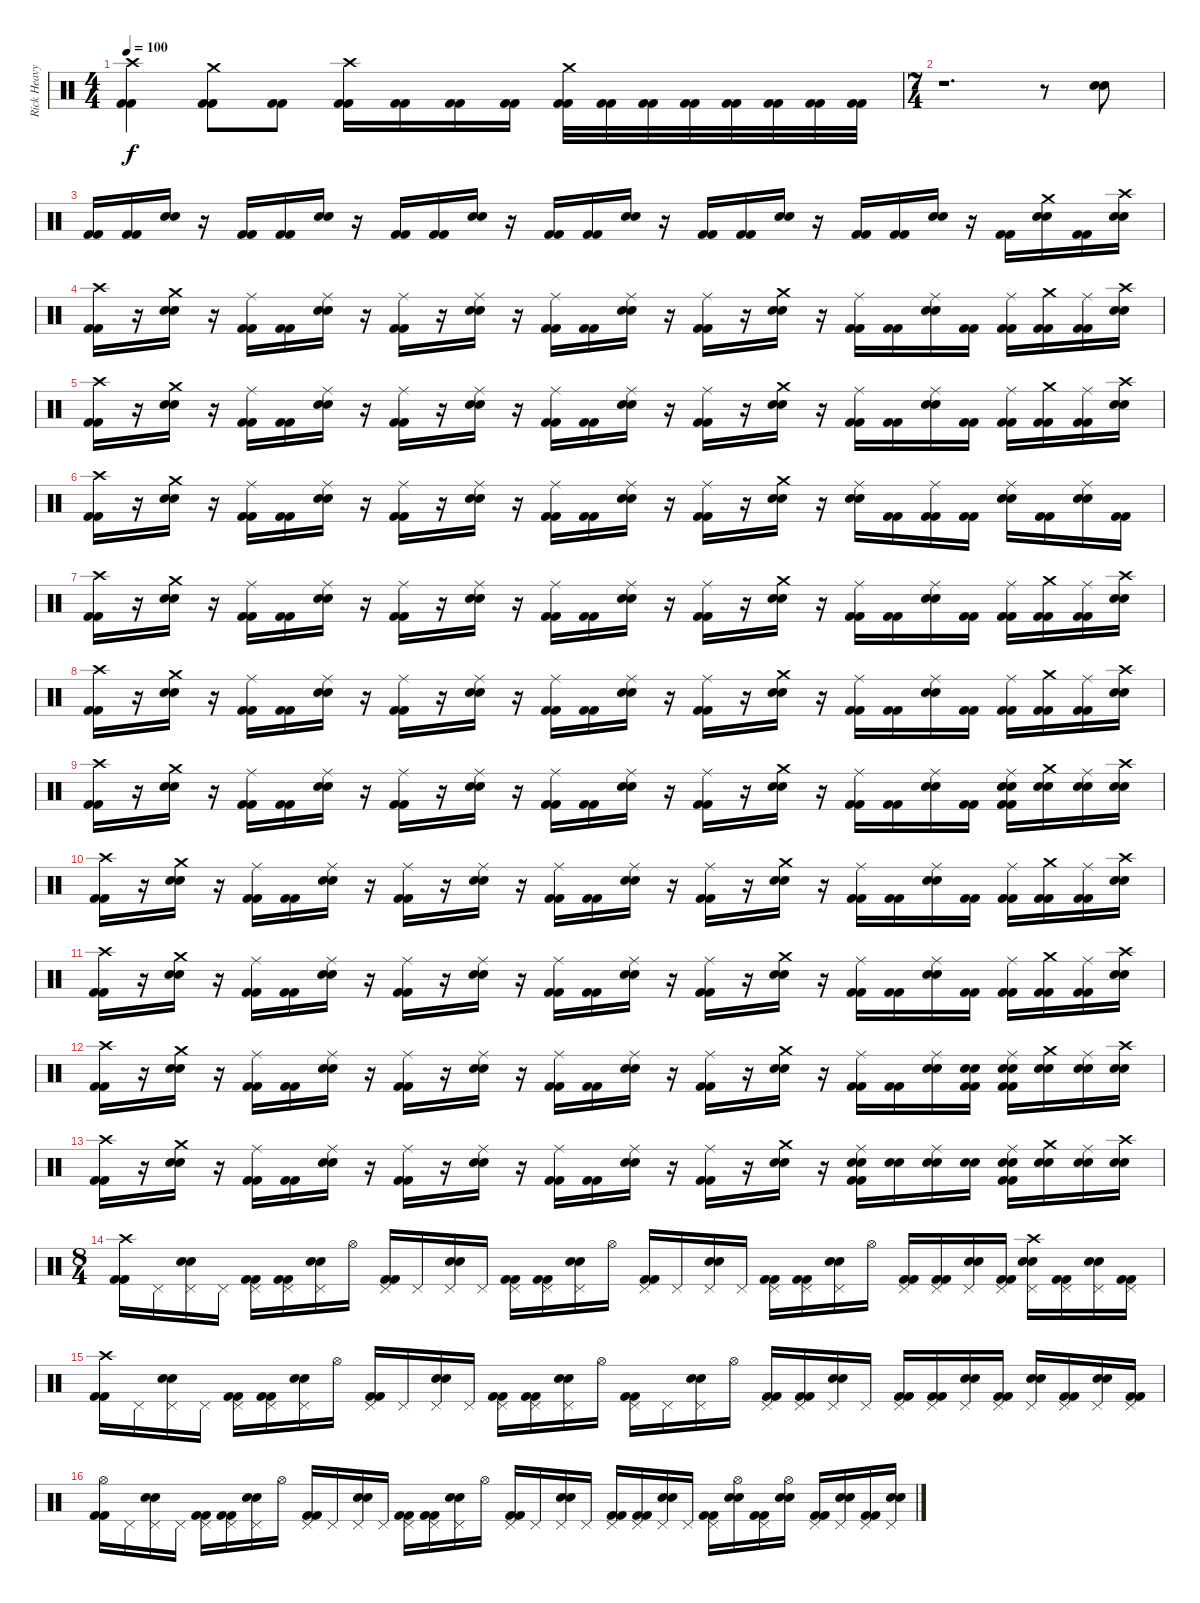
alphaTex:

\track ("Rick Heavy" "Rick Heavy") {instrument percussion}
\staff {score}
\articulation defaults
\ts (4 4)
\tempo 100
\clef neutral
\ks c
("Crash high (hit)" "Kick (hit) 2" "Kick (hit) 2").4{dy f} ("Crash medium (hit)" "Kick (hit) 2" "Kick (hit) 2").8 ("Kick (hit) 2" "Kick (hit) 2").8 ("Crash high (hit)" "Kick (hit) 2" "Kick (hit) 2").16 ("Kick (hit) 2" "Kick (hit) 2").16 ("Kick (hit) 2" "Kick (hit) 2").16 ("Kick (hit) 2" "Kick (hit) 2").16 ("Crash medium (hit)" "Kick (hit) 2" "Kick (hit) 2").32 ("Kick (hit) 2" "Kick (hit) 2").32 ("Kick (hit) 2" "Kick (hit) 2").32 ("Kick (hit) 2" "Kick (hit) 2").32 ("Kick (hit) 2" "Kick (hit) 2").32 ("Kick (hit) 2" "Kick (hit) 2").32 ("Kick (hit) 2" "Kick (hit) 2").32 ("Kick (hit) 2" "Kick (hit) 2").32 |
\ts (7 4)
r.1{d} r.8 ("Electric Snare (hit)" "Snare (hit) 2").8 |
("Kick (hit) 2" "Kick (hit) 2").16 ("Kick (hit) 2" "Kick (hit) 2").16 ("Electric Snare (hit)" "Snare (hit) 2").16 r.16 ("Kick (hit) 2" "Kick (hit) 2").16 ("Kick (hit) 2" "Kick (hit) 2").16 ("Electric Snare (hit)" "Snare (hit) 2").16 r.16 ("Kick (hit) 2" "Kick (hit) 2").16 ("Kick (hit) 2" "Kick (hit) 2").16 ("Electric Snare (hit)" "Snare (hit) 2").16 r.16 ("Kick (hit) 2" "Kick (hit) 2").16 ("Kick (hit) 2" "Kick (hit) 2").16 ("Electric Snare (hit)" "Snare (hit) 2").16 r.16 ("Kick (hit) 2" "Kick (hit) 2").16 ("Kick (hit) 2" "Kick (hit) 2").16 ("Electric Snare (hit)" "Snare (hit) 2").16 r.16 ("Kick (hit) 2" "Kick (hit) 2").16 ("Kick (hit) 2" "Kick (hit) 2").16 ("Electric Snare (hit)" "Snare (hit) 2").16 r.16 ("Kick (hit) 2" "Kick (hit) 2").16 ("Crash medium (hit)" "Electric Snare (hit)" "Snare (hit) 2").16 ("Kick (hit) 2" "Kick (hit) 2").16 ("Crash high (hit)" "Electric Snare (hit)" "Snare (hit) 2").16 |
("Crash high (hit)" "Kick (hit) 2" "Kick (hit) 2").16 r.16 ("Crash medium (hit)" "Electric Snare (hit)" "Snare (hit) 2").16 r.16 ("Ride (middle)" "Kick (hit) 2" "Kick (hit) 2").16 ("Kick (hit) 2" "Kick (hit) 2").16 ("Ride (middle)" "Electric Snare (hit)" "Snare (hit) 2").16 r.16 ("Ride (middle)" "Kick (hit) 2" "Kick (hit) 2").16 r.16 ("Ride (middle)" "Electric Snare (hit)" "Snare (hit) 2").16 r.16 ("Ride (middle)" "Kick (hit) 2" "Kick (hit) 2").16 ("Kick (hit) 2" "Kick (hit) 2").16 ("Ride (middle)" "Electric Snare (hit)" "Snare (hit) 2").16 r.16 ("Ride (middle)" "Kick (hit) 2" "Kick (hit) 2").16 r.16 ("Crash medium (hit)" "Electric Snare (hit)" "Snare (hit) 2").16 r.16 ("Ride (middle)" "Kick (hit) 2" "Kick (hit) 2").16 ("Kick (hit) 2" "Kick (hit) 2").16 ("Ride (middle)" "Electric Snare (hit)" "Snare (hit) 2").16 ("Kick (hit) 2" "Kick (hit) 2").16 ("Ride (middle)" "Kick (hit) 2" "Kick (hit) 2").16 ("Crash medium (hit)" "Kick (hit) 2" "Kick (hit) 2").16 ("Ride (middle)" "Kick (hit) 2" "Kick (hit) 2").16 ("Crash high (hit)" "Electric Snare (hit)" "Snare (hit) 2").16 |
("Crash high (hit)" "Kick (hit) 2" "Kick (hit) 2").16 r.16 ("Crash medium (hit)" "Electric Snare (hit)" "Snare (hit) 2").16 r.16 ("Ride (middle)" "Kick (hit) 2" "Kick (hit) 2").16 ("Kick (hit) 2" "Kick (hit) 2").16 ("Ride (middle)" "Electric Snare (hit)" "Snare (hit) 2").16 r.16 ("Ride (middle)" "Kick (hit) 2" "Kick (hit) 2").16 r.16 ("Ride (middle)" "Electric Snare (hit)" "Snare (hit) 2").16 r.16 ("Ride (middle)" "Kick (hit) 2" "Kick (hit) 2").16 ("Kick (hit) 2" "Kick (hit) 2").16 ("Ride (middle)" "Electric Snare (hit)" "Snare (hit) 2").16 r.16 ("Ride (middle)" "Kick (hit) 2" "Kick (hit) 2").16 r.16 ("Crash medium (hit)" "Electric Snare (hit)" "Snare (hit) 2").16 r.16 ("Ride (middle)" "Kick (hit) 2" "Kick (hit) 2").16 ("Kick (hit) 2" "Kick (hit) 2").16 ("Ride (middle)" "Electric Snare (hit)" "Snare (hit) 2").16 ("Kick (hit) 2" "Kick (hit) 2").16 ("Ride (middle)" "Kick (hit) 2" "Kick (hit) 2").16 ("Crash medium (hit)" "Kick (hit) 2" "Kick (hit) 2").16 ("Ride (middle)" "Kick (hit) 2" "Kick (hit) 2").16 ("Crash high (hit)" "Electric Snare (hit)" "Snare (hit) 2").16 |
("Crash high (hit)" "Kick (hit) 2" "Kick (hit) 2").16 r.16 ("Crash medium (hit)" "Electric Snare (hit)" "Snare (hit) 2").16 r.16 ("Ride (middle)" "Kick (hit) 2" "Kick (hit) 2").16 ("Kick (hit) 2" "Kick (hit) 2").16 ("Ride (middle)" "Electric Snare (hit)" "Snare (hit) 2").16 r.16 ("Ride (middle)" "Kick (hit) 2" "Kick (hit) 2").16 r.16 ("Ride (middle)" "Electric Snare (hit)" "Snare (hit) 2").16 r.16 ("Ride (middle)" "Kick (hit) 2" "Kick (hit) 2").16 ("Kick (hit) 2" "Kick (hit) 2").16 ("Ride (middle)" "Electric Snare (hit)" "Snare (hit) 2").16 r.16 ("Ride (middle)" "Kick (hit) 2" "Kick (hit) 2").16 r.16 ("Crash medium (hit)" "Electric Snare (hit)" "Snare (hit) 2").16 r.16 ("Ride (middle)" "Electric Snare (hit)" "Snare (hit) 2").16 ("Kick (hit) 2" "Kick (hit) 2").16 ("Ride (middle)" "Kick (hit) 2" "Kick (hit) 2").16 ("Kick (hit) 2" "Kick (hit) 2").16 ("Ride (middle)" "Electric Snare (hit)" "Snare (hit) 2").16 ("Kick (hit) 2" "Kick (hit) 2").16 ("Ride (middle)" "Electric Snare (hit)" "Snare (hit) 2").16 ("Kick (hit) 2" "Kick (hit) 2").16 |
("Crash high (hit)" "Kick (hit) 2" "Kick (hit) 2").16 r.16 ("Crash medium (hit)" "Electric Snare (hit)" "Snare (hit) 2").16 r.16 ("Ride (middle)" "Kick (hit) 2" "Kick (hit) 2").16 ("Kick (hit) 2" "Kick (hit) 2").16 ("Ride (middle)" "Electric Snare (hit)" "Snare (hit) 2").16 r.16 ("Ride (middle)" "Kick (hit) 2" "Kick (hit) 2").16 r.16 ("Ride (middle)" "Electric Snare (hit)" "Snare (hit) 2").16 r.16 ("Ride (middle)" "Kick (hit) 2" "Kick (hit) 2").16 ("Kick (hit) 2" "Kick (hit) 2").16 ("Ride (middle)" "Electric Snare (hit)" "Snare (hit) 2").16 r.16 ("Ride (middle)" "Kick (hit) 2" "Kick (hit) 2").16 r.16 ("Crash medium (hit)" "Electric Snare (hit)" "Snare (hit) 2").16 r.16 ("Ride (middle)" "Kick (hit) 2" "Kick (hit) 2").16 ("Kick (hit) 2" "Kick (hit) 2").16 ("Ride (middle)" "Electric Snare (hit)" "Snare (hit) 2").16 ("Kick (hit) 2" "Kick (hit) 2").16 ("Ride (middle)" "Kick (hit) 2" "Kick (hit) 2").16 ("Crash medium (hit)" "Kick (hit) 2" "Kick (hit) 2").16 ("Ride (middle)" "Kick (hit) 2" "Kick (hit) 2").16 ("Crash high (hit)" "Electric Snare (hit)" "Snare (hit) 2").16 |
("Crash high (hit)" "Kick (hit) 2" "Kick (hit) 2").16 r.16 ("Crash medium (hit)" "Electric Snare (hit)" "Snare (hit) 2").16 r.16 ("Ride (middle)" "Kick (hit) 2" "Kick (hit) 2").16 ("Kick (hit) 2" "Kick (hit) 2").16 ("Ride (middle)" "Electric Snare (hit)" "Snare (hit) 2").16 r.16 ("Ride (middle)" "Kick (hit) 2" "Kick (hit) 2").16 r.16 ("Ride (middle)" "Electric Snare (hit)" "Snare (hit) 2").16 r.16 ("Ride (middle)" "Kick (hit) 2" "Kick (hit) 2").16 ("Kick (hit) 2" "Kick (hit) 2").16 ("Ride (middle)" "Electric Snare (hit)" "Snare (hit) 2").16 r.16 ("Ride (middle)" "Kick (hit) 2" "Kick (hit) 2").16 r.16 ("Crash medium (hit)" "Electric Snare (hit)" "Snare (hit) 2").16 r.16 ("Ride (middle)" "Kick (hit) 2" "Kick (hit) 2").16 ("Kick (hit) 2" "Kick (hit) 2").16 ("Ride (middle)" "Electric Snare (hit)" "Snare (hit) 2").16 ("Kick (hit) 2" "Kick (hit) 2").16 ("Ride (middle)" "Kick (hit) 2" "Kick (hit) 2").16 ("Crash medium (hit)" "Kick (hit) 2" "Kick (hit) 2").16 ("Ride (middle)" "Kick (hit) 2" "Kick (hit) 2").16 ("Crash high (hit)" "Electric Snare (hit)" "Snare (hit) 2").16 |
("Crash high (hit)" "Kick (hit) 2" "Kick (hit) 2").16 r.16 ("Crash medium (hit)" "Electric Snare (hit)" "Snare (hit) 2").16 r.16 ("Ride (middle)" "Kick (hit) 2" "Kick (hit) 2").16 ("Kick (hit) 2" "Kick (hit) 2").16 ("Ride (middle)" "Electric Snare (hit)" "Snare (hit) 2").16 r.16 ("Ride (middle)" "Kick (hit) 2" "Kick (hit) 2").16 r.16 ("Ride (middle)" "Electric Snare (hit)" "Snare (hit) 2").16 r.16 ("Ride (middle)" "Kick (hit) 2" "Kick (hit) 2").16 ("Kick (hit) 2" "Kick (hit) 2").16 ("Ride (middle)" "Electric Snare (hit)" "Snare (hit) 2").16 r.16 ("Ride (middle)" "Kick (hit) 2" "Kick (hit) 2").16 r.16 ("Crash medium (hit)" "Electric Snare (hit)" "Snare (hit) 2").16 r.16 ("Ride (middle)" "Kick (hit) 2" "Kick (hit) 2").16 ("Kick (hit) 2" "Kick (hit) 2").16 ("Ride (middle)" "Electric Snare (hit)" "Snare (hit) 2").16 ("Kick (hit) 2" "Kick (hit) 2").16 ("Ride (middle)" "Kick (hit) 2" "Electric Snare (hit)" "Snare (hit) 2" "Kick (hit) 2").16 ("Crash medium (hit)" "Electric Snare (hit)" "Snare (hit) 2").16 ("Ride (middle)" "Electric Snare (hit)" "Snare (hit) 2").16 ("Crash high (hit)" "Electric Snare (hit)" "Snare (hit) 2").16 |
("Crash high (hit)" "Kick (hit) 2" "Kick (hit) 2").16 r.16 ("Crash medium (hit)" "Electric Snare (hit)" "Snare (hit) 2").16 r.16 ("Ride (middle)" "Kick (hit) 2" "Kick (hit) 2").16 ("Kick (hit) 2" "Kick (hit) 2").16 ("Ride (middle)" "Electric Snare (hit)" "Snare (hit) 2").16 r.16 ("Ride (middle)" "Kick (hit) 2" "Kick (hit) 2").16 r.16 ("Ride (middle)" "Electric Snare (hit)" "Snare (hit) 2").16 r.16 ("Ride (middle)" "Kick (hit) 2" "Kick (hit) 2").16 ("Kick (hit) 2" "Kick (hit) 2").16 ("Ride (middle)" "Electric Snare (hit)" "Snare (hit) 2").16 r.16 ("Ride (middle)" "Kick (hit) 2" "Kick (hit) 2").16 r.16 ("Crash medium (hit)" "Electric Snare (hit)" "Snare (hit) 2").16 r.16 ("Ride (middle)" "Kick (hit) 2" "Kick (hit) 2").16 ("Kick (hit) 2" "Kick (hit) 2").16 ("Ride (middle)" "Electric Snare (hit)" "Snare (hit) 2").16 ("Kick (hit) 2" "Kick (hit) 2").16 ("Ride (middle)" "Kick (hit) 2" "Kick (hit) 2").16 ("Crash medium (hit)" "Kick (hit) 2" "Kick (hit) 2").16 ("Ride (middle)" "Kick (hit) 2" "Kick (hit) 2").16 ("Crash high (hit)" "Electric Snare (hit)" "Snare (hit) 2").16 |
("Crash high (hit)" "Kick (hit) 2" "Kick (hit) 2").16 r.16 ("Crash medium (hit)" "Electric Snare (hit)" "Snare (hit) 2").16 r.16 ("Ride (middle)" "Kick (hit) 2" "Kick (hit) 2").16 ("Kick (hit) 2" "Kick (hit) 2").16 ("Ride (middle)" "Electric Snare (hit)" "Snare (hit) 2").16 r.16 ("Ride (middle)" "Kick (hit) 2" "Kick (hit) 2").16 r.16 ("Ride (middle)" "Electric Snare (hit)" "Snare (hit) 2").16 r.16 ("Ride (middle)" "Kick (hit) 2" "Kick (hit) 2").16 ("Kick (hit) 2" "Kick (hit) 2").16 ("Ride (middle)" "Electric Snare (hit)" "Snare (hit) 2").16 r.16 ("Ride (middle)" "Kick (hit) 2" "Kick (hit) 2").16 r.16 ("Crash medium (hit)" "Electric Snare (hit)" "Snare (hit) 2").16 r.16 ("Ride (middle)" "Kick (hit) 2" "Kick (hit) 2").16 ("Kick (hit) 2" "Kick (hit) 2").16 ("Ride (middle)" "Electric Snare (hit)" "Snare (hit) 2").16 ("Kick (hit) 2" "Kick (hit) 2").16 ("Ride (middle)" "Kick (hit) 2" "Kick (hit) 2").16 ("Crash medium (hit)" "Kick (hit) 2" "Kick (hit) 2").16 ("Ride (middle)" "Kick (hit) 2" "Kick (hit) 2").16 ("Crash high (hit)" "Electric Snare (hit)" "Snare (hit) 2").16 |
("Crash high (hit)" "Kick (hit) 2" "Kick (hit) 2").16 r.16 ("Crash medium (hit)" "Electric Snare (hit)" "Snare (hit) 2").16 r.16 ("Ride (middle)" "Kick (hit) 2" "Kick (hit) 2").16 ("Kick (hit) 2" "Kick (hit) 2").16 ("Ride (middle)" "Electric Snare (hit)" "Snare (hit) 2").16 r.16 ("Ride (middle)" "Kick (hit) 2" "Kick (hit) 2").16 r.16 ("Ride (middle)" "Electric Snare (hit)" "Snare (hit) 2").16 r.16 ("Ride (middle)" "Kick (hit) 2" "Kick (hit) 2").16 ("Kick (hit) 2" "Kick (hit) 2").16 ("Ride (middle)" "Electric Snare (hit)" "Snare (hit) 2").16 r.16 ("Ride (middle)" "Kick (hit) 2" "Kick (hit) 2").16 r.16 ("Crash medium (hit)" "Electric Snare (hit)" "Snare (hit) 2").16 r.16 ("Ride (middle)" "Kick (hit) 2" "Kick (hit) 2").16 ("Kick (hit) 2" "Kick (hit) 2").16 ("Ride (middle)" "Electric Snare (hit)" "Snare (hit) 2").16 ("Kick (hit) 2" "Electric Snare (hit)" "Snare (hit) 2" "Kick (hit) 2").16 ("Ride (middle)" "Kick (hit) 2" "Electric Snare (hit)" "Snare (hit) 2" "Kick (hit) 2").16 ("Crash medium (hit)" "Electric Snare (hit)" "Snare (hit) 2").16 ("Ride (middle)" "Electric Snare (hit)" "Snare (hit) 2").16 ("Crash high (hit)" "Electric Snare (hit)" "Snare (hit) 2").16 |
("Crash high (hit)" "Kick (hit) 2" "Kick (hit) 2").16 r.16 ("Crash medium (hit)" "Electric Snare (hit)" "Snare (hit) 2").16 r.16 ("Ride (middle)" "Kick (hit) 2" "Kick (hit) 2").16 ("Kick (hit) 2" "Kick (hit) 2").16 ("Ride (middle)" "Electric Snare (hit)" "Snare (hit) 2").16 r.16 ("Ride (middle)" "Kick (hit) 2" "Kick (hit) 2").16 r.16 ("Ride (middle)" "Electric Snare (hit)" "Snare (hit) 2").16 r.16 ("Ride (middle)" "Kick (hit) 2" "Kick (hit) 2").16 ("Kick (hit) 2" "Kick (hit) 2").16 ("Ride (middle)" "Electric Snare (hit)" "Snare (hit) 2").16 r.16 ("Ride (middle)" "Kick (hit) 2" "Kick (hit) 2").16 r.16 ("Crash medium (hit)" "Electric Snare (hit)" "Snare (hit) 2").16 r.16 ("Ride (middle)" "Kick (hit) 2" "Electric Snare (hit)" "Snare (hit) 2" "Kick (hit) 2").16 ("Electric Snare (hit)" "Snare (hit) 2").16 ("Ride (middle)" "Electric Snare (hit)" "Snare (hit) 2").16 ("Electric Snare (hit)" "Snare (hit) 2").16 ("Ride (middle)" "Kick (hit) 2" "Electric Snare (hit)" "Snare (hit) 2" "Kick (hit) 2").16 ("Crash medium (hit)" "Electric Snare (hit)" "Snare (hit) 2").16 ("Ride (middle)" "Electric Snare (hit)" "Snare (hit) 2").16 ("Crash high (hit)" "Electric Snare (hit)" "Snare (hit) 2").16 |
\ts (8 4)
("Crash high (hit)" "Kick (hit) 2" "Kick (hit) 2").16 "Pedal Hi-Hat (hit)".16 ("Pedal Hi-Hat (hit)" "Electric Snare (hit)" "Snare (hit) 2").16 "Pedal Hi-Hat (hit)".16 ("Pedal Hi-Hat (hit)" "Kick (hit) 2" "Kick (hit) 2").16 ("Pedal Hi-Hat (hit)" "Kick (hit) 2" "Kick (hit) 2").16 ("Pedal Hi-Hat (hit)" "Electric Snare (hit)" "Snare (hit) 2").16 "Hi-Hat (open)".16 ("Pedal Hi-Hat (hit)" "Kick (hit) 2" "Kick (hit) 2").16 "Pedal Hi-Hat (hit)".16 ("Pedal Hi-Hat (hit)" "Electric Snare (hit)" "Snare (hit) 2").16 "Pedal Hi-Hat (hit)".16 ("Pedal Hi-Hat (hit)" "Kick (hit) 2" "Kick (hit) 2").16 ("Pedal Hi-Hat (hit)" "Kick (hit) 2" "Kick (hit) 2").16 ("Pedal Hi-Hat (hit)" "Electric Snare (hit)" "Snare (hit) 2").16 "Hi-Hat (open)".16 ("Pedal Hi-Hat (hit)" "Kick (hit) 2" "Kick (hit) 2").16 "Pedal Hi-Hat (hit)".16 ("Pedal Hi-Hat (hit)" "Electric Snare (hit)" "Snare (hit) 2").16 "Pedal Hi-Hat (hit)".16 ("Pedal Hi-Hat (hit)" "Kick (hit) 2" "Kick (hit) 2").16 ("Pedal Hi-Hat (hit)" "Kick (hit) 2" "Kick (hit) 2").16 ("Pedal Hi-Hat (hit)" "Electric Snare (hit)" "Snare (hit) 2").16 "Hi-Hat (open)".16 ("Pedal Hi-Hat (hit)" "Kick (hit) 2" "Kick (hit) 2").16 ("Pedal Hi-Hat (hit)" "Kick (hit) 2" "Kick (hit) 2").16 ("Pedal Hi-Hat (hit)" "Electric Snare (hit)" "Snare (hit) 2").16 ("Pedal Hi-Hat (hit)" "Kick (hit) 2" "Kick (hit) 2").16 ("Pedal Hi-Hat (hit)" "Crash high (hit)" "Electric Snare (hit)" "Snare (hit) 2").16 ("Pedal Hi-Hat (hit)" "Kick (hit) 2" "Kick (hit) 2").16 ("Pedal Hi-Hat (hit)" "Electric Snare (hit)" "Snare (hit) 2").16 ("Pedal Hi-Hat (hit)" "Kick (hit) 2" "Kick (hit) 2").16 |
("Crash high (hit)" "Kick (hit) 2" "Kick (hit) 2").16 "Pedal Hi-Hat (hit)".16 ("Pedal Hi-Hat (hit)" "Electric Snare (hit)" "Snare (hit) 2").16 "Pedal Hi-Hat (hit)".16 ("Pedal Hi-Hat (hit)" "Kick (hit) 2" "Kick (hit) 2").16 ("Pedal Hi-Hat (hit)" "Kick (hit) 2" "Kick (hit) 2").16 ("Pedal Hi-Hat (hit)" "Electric Snare (hit)" "Snare (hit) 2").16 "Hi-Hat (open)".16 ("Pedal Hi-Hat (hit)" "Kick (hit) 2" "Kick (hit) 2").16 "Pedal Hi-Hat (hit)".16 ("Pedal Hi-Hat (hit)" "Electric Snare (hit)" "Snare (hit) 2").16 "Pedal Hi-Hat (hit)".16 ("Pedal Hi-Hat (hit)" "Kick (hit) 2" "Kick (hit) 2").16 ("Pedal Hi-Hat (hit)" "Kick (hit) 2" "Kick (hit) 2").16 ("Pedal Hi-Hat (hit)" "Electric Snare (hit)" "Snare (hit) 2").16 "Hi-Hat (open)".16 ("Pedal Hi-Hat (hit)" "Kick (hit) 2" "Kick (hit) 2").16 "Pedal Hi-Hat (hit)".16 ("Pedal Hi-Hat (hit)" "Electric Snare (hit)" "Snare (hit) 2").16 "Hi-Hat (open)".16 ("Pedal Hi-Hat (hit)" "Kick (hit) 2" "Kick (hit) 2").16 ("Pedal Hi-Hat (hit)" "Kick (hit) 2" "Kick (hit) 2").16 ("Pedal Hi-Hat (hit)" "Electric Snare (hit)" "Snare (hit) 2").16 "Pedal Hi-Hat (hit)".16 ("Pedal Hi-Hat (hit)" "Kick (hit) 2" "Kick (hit) 2").16 ("Pedal Hi-Hat (hit)" "Kick (hit) 2" "Kick (hit) 2").16 ("Pedal Hi-Hat (hit)" "Electric Snare (hit)" "Snare (hit) 2").16 ("Pedal Hi-Hat (hit)" "Kick (hit) 2" "Kick (hit) 2").16 ("Pedal Hi-Hat (hit)" "Electric Snare (hit)" "Snare (hit) 2").16 ("Pedal Hi-Hat (hit)" "Kick (hit) 2" "Kick (hit) 2").16 ("Pedal Hi-Hat (hit)" "Electric Snare (hit)" "Snare (hit) 2").16 ("Pedal Hi-Hat (hit)" "Kick (hit) 2" "Kick (hit) 2").16 |
("Hi-Hat (open)" "Kick (hit) 2" "Kick (hit) 2").16 "Pedal Hi-Hat (hit)".16 ("Pedal Hi-Hat (hit)" "Electric Snare (hit)" "Snare (hit) 2").16 "Pedal Hi-Hat (hit)".16 ("Pedal Hi-Hat (hit)" "Kick (hit) 2" "Kick (hit) 2").16 ("Pedal Hi-Hat (hit)" "Kick (hit) 2" "Kick (hit) 2").16 ("Pedal Hi-Hat (hit)" "Electric Snare (hit)" "Snare (hit) 2").16 "Hi-Hat (open)".16 ("Pedal Hi-Hat (hit)" "Kick (hit) 2" "Kick (hit) 2").16 "Pedal Hi-Hat (hit)".16 ("Pedal Hi-Hat (hit)" "Electric Snare (hit)" "Snare (hit) 2").16 "Pedal Hi-Hat (hit)".16 ("Pedal Hi-Hat (hit)" "Kick (hit) 2" "Kick (hit) 2").16 ("Pedal Hi-Hat (hit)" "Kick (hit) 2" "Kick (hit) 2").16 ("Pedal Hi-Hat (hit)" "Electric Snare (hit)" "Snare (hit) 2").16 "Hi-Hat (open)".16 ("Pedal Hi-Hat (hit)" "Kick (hit) 2" "Kick (hit) 2").16 "Pedal Hi-Hat (hit)".16 ("Pedal Hi-Hat (hit)" "Electric Snare (hit)" "Snare (hit) 2").16 "Pedal Hi-Hat (hit)".16 ("Pedal Hi-Hat (hit)" "Kick (hit) 2" "Kick (hit) 2").16 ("Pedal Hi-Hat (hit)" "Kick (hit) 2" "Kick (hit) 2").16 ("Pedal Hi-Hat (hit)" "Electric Snare (hit)" "Snare (hit) 2").16 "Pedal Hi-Hat (hit)".16 ("Pedal Hi-Hat (hit)" "Kick (hit) 2" "Kick (hit) 2").16 ("Hi-Hat (open)" "Electric Snare (hit)" "Snare (hit) 2").16 ("Pedal Hi-Hat (hit)" "Kick (hit) 2" "Kick (hit) 2").16 ("Hi-Hat (open)" "Electric Snare (hit)" "Snare (hit) 2").16 ("Pedal Hi-Hat (hit)" "Kick (hit) 2" "Kick (hit) 2").16 ("Pedal Hi-Hat (hit)" "Electric Snare (hit)" "Snare (hit) 2").16 ("Pedal Hi-Hat (hit)" "Kick (hit) 2" "Kick (hit) 2").16 ("Pedal Hi-Hat (hit)" "Electric Snare (hit)" "Snare (hit) 2").16
